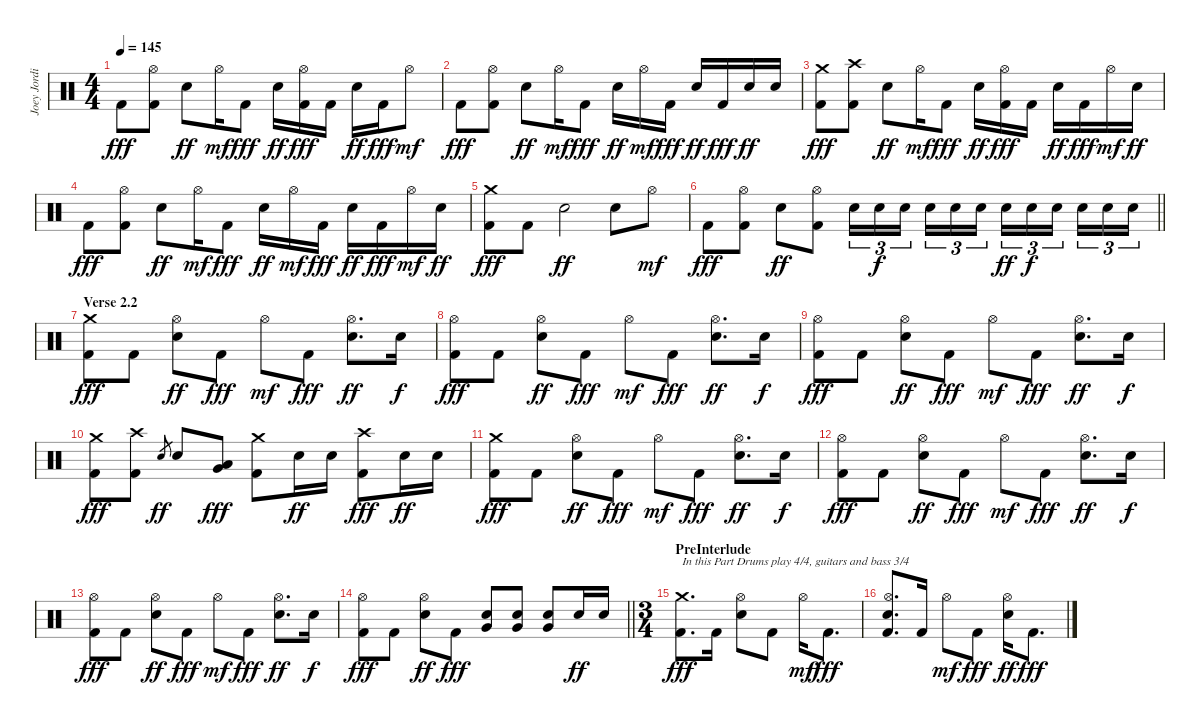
\track ("Joey Jordison" "Joey Jordi") {instrument percussion}
\staff {score}
\articulation defaults
\ts (4 4)
\tempo 145
\clef neutral
\ks c "Kick (hit) 2".8{dy fff}
("Hi-Hat (open)" "Kick (hit) 2").8 "Electric Snare (hit)".8{dy ff} "Hi-Hat (open)".16{dy mf} "Kick (hit) 2".8{dy fff} "Electric Snare (hit)".16{dy ff} ("Hi-Hat (open)" "Kick (hit) 2").16{dy fff} "Kick (hit) 2".16 "Electric Snare (hit)".16{dy ff} "Kick (hit) 2".16{dy fff} "Hi-Hat (open)".8{dy mf} |
"Kick (hit) 2".8{dy fff} ("Hi-Hat (open)" "Kick (hit) 2").8 "Electric Snare (hit)".8{dy ff} "Hi-Hat (open)".16{dy mf} "Kick (hit) 2".8{dy fff} "Electric Snare (hit)".16{dy ff} "Hi-Hat (open)".16{dy mf} "Kick (hit) 2".16{dy fff} "Electric Snare (hit)".16{dy ff} "Kick (hit) 2".16{dy fff} "Electric Snare (hit)".16{dy ff} "Electric Snare (hit)".16 |
("Crash medium (hit)" "Kick (hit) 2").8{dy fff} ("Crash high (hit)" "Kick (hit) 2").8 "Electric Snare (hit)".8{dy ff} "Hi-Hat (open)".16{dy mf} "Kick (hit) 2".8{dy fff} "Electric Snare (hit)".16{dy ff} ("Hi-Hat (open)" "Kick (hit) 2").16{dy fff} "Kick (hit) 2".16 "Electric Snare (hit)".16{dy ff} "Kick (hit) 2".16{dy fff} "Hi-Hat (open)".16{dy mf} "Electric Snare (hit)".16{dy ff} |
"Kick (hit) 2".8{dy fff} ("Hi-Hat (open)" "Kick (hit) 2").8 "Electric Snare (hit)".8{dy ff} "Hi-Hat (open)".16{dy mf} "Kick (hit) 2".8{dy fff} "Electric Snare (hit)".16{dy ff} "Hi-Hat (open)".16{dy mf} "Kick (hit) 2".16{dy fff} "Electric Snare (hit)".16{dy ff} "Kick (hit) 2".16{dy fff} "Hi-Hat (open)".16{dy mf} "Electric Snare (hit)".16{dy ff} |
("Crash medium (hit)" "Kick (hit) 2").8{dy fff} "Kick (hit) 2".8 "Electric Snare (hit)".2{dy ff} "Electric Snare (hit)".8 "Hi-Hat (open)".8{dy mf} |
\barLineRight lightlight "Kick (hit) 2".8{dy fff}
("Hi-Hat (open)" "Kick (hit) 2").8 "Electric Snare (hit)".8{dy ff} ("Hi-Hat (open)" "Kick (hit) 2").8 "Electric Snare (hit)".16{tu (3 2)} "Electric Snare (hit)".16{tu (3 2) dy f} "Electric Snare (hit)".16{tu (3 2) beam splitsecondary} "Electric Snare (hit)".16{tu (3 2)} "Electric Snare (hit)".16{tu (3 2)} "Electric Snare (hit)".16{tu (3 2)} "Electric Snare (hit)".16{tu (3 2) dy ff} "Electric Snare (hit)".16{tu (3 2) dy f} "Electric Snare (hit)".16{tu (3 2) beam splitsecondary} "Electric Snare (hit)".16{tu (3 2)} "Electric Snare (hit)".16{tu (3 2)} "Electric Snare (hit)".16{tu (3 2)} |
\section ("" "Verse 2.2")
("Crash medium (hit)" "Kick (hit) 2").8{dy fff} "Kick (hit) 2".8 ("Hi-Hat (open)" "Electric Snare (hit)").8{dy ff} "Kick (hit) 2".8{dy fff} "Hi-Hat (open)".8{dy mf} "Kick (hit) 2".8{dy fff} ("Hi-Hat (open)" "Electric Snare (hit)").8{d dy ff} "Electric Snare (hit)".16{dy f} |
("Hi-Hat (open)" "Kick (hit) 2").8{dy fff} "Kick (hit) 2".8 ("Hi-Hat (open)" "Electric Snare (hit)").8{dy ff} "Kick (hit) 2".8{dy fff} "Hi-Hat (open)".8{dy mf} "Kick (hit) 2".8{dy fff} ("Hi-Hat (open)" "Electric Snare (hit)").8{d dy ff} "Electric Snare (hit)".16{dy f} |
("Hi-Hat (open)" "Kick (hit) 2").8{dy fff} "Kick (hit) 2".8 ("Hi-Hat (open)" "Electric Snare (hit)").8{dy ff} "Kick (hit) 2".8{dy fff} "Hi-Hat (open)".8{dy mf} "Kick (hit) 2".8{dy fff} ("Hi-Hat (open)" "Electric Snare (hit)").8{d dy ff} "Electric Snare (hit)".16{dy f} |
("Crash medium (hit)" "Kick (hit) 2").8{dy fff} ("Crash high (hit)" "Kick (hit) 2").8 "Electric Snare (hit)".8{gr dy ff} "Electric Snare (hit)".8 ("Low Tom (hit)" "Very Low Tom (hit)").8{dy fff} ("Crash medium (hit)" "Kick (hit) 2").8 "Electric Snare (hit)".16{dy ff} "Electric Snare (hit)".16 ("Crash high (hit)" "Kick (hit) 2").8{dy fff} "Electric Snare (hit)".16{dy ff} "Electric Snare (hit)".16 |
("Crash medium (hit)" "Kick (hit) 2").8{dy fff} "Kick (hit) 2".8 ("Hi-Hat (open)" "Electric Snare (hit)").8{dy ff} "Kick (hit) 2".8{dy fff} "Hi-Hat (open)".8{dy mf} "Kick (hit) 2".8{dy fff} ("Hi-Hat (open)" "Electric Snare (hit)").8{d dy ff} "Electric Snare (hit)".16{dy f} |
("Hi-Hat (open)" "Kick (hit) 2").8{dy fff} "Kick (hit) 2".8 ("Hi-Hat (open)" "Electric Snare (hit)").8{dy ff} "Kick (hit) 2".8{dy fff} "Hi-Hat (open)".8{dy mf} "Kick (hit) 2".8{dy fff} ("Hi-Hat (open)" "Electric Snare (hit)").8{d dy ff} "Electric Snare (hit)".16{dy f} |
("Hi-Hat (open)" "Kick (hit) 2").8{dy fff} "Kick (hit) 2".8 ("Hi-Hat (open)" "Electric Snare (hit)").8{dy ff} "Kick (hit) 2".8{dy fff} "Hi-Hat (open)".8{dy mf} "Kick (hit) 2".8{dy fff} ("Hi-Hat (open)" "Electric Snare (hit)").8{d dy ff} "Electric Snare (hit)".16{dy f} |
\barLineRight lightlight
("Hi-Hat (open)" "Kick (hit) 2").8{dy fff} "Kick (hit) 2".8 ("Hi-Hat (open)" "Electric Snare (hit)").8{dy ff} "Kick (hit) 2".8{dy fff} ("Electric Snare (hit)" "Very Low Tom (hit)").8 ("Electric Snare (hit)" "Very Low Tom (hit)").8 ("Electric Snare (hit)" "Very Low Tom (hit)").8 "Electric Snare (hit)".16{dy ff} "Electric Snare (hit)".16 |
\ts (3 4)
\section ("" "PreInterlude")
("Crash medium (hit)" "Kick (hit) 2").8{d txt "In this Part Drums play 4/4, guitars and bass 3/4" dy fff} "Kick (hit) 2".16 ("Hi-Hat (open)" "Electric Snare (hit)").8 "Kick (hit) 2".8 "Hi-Hat (open)".16{dy mf} "Kick (hit) 2".8{d dy fff} |
("Hi-Hat (open)" "Electric Snare (hit)" "Kick (hit) 2").8{d} "Kick (hit) 2".16 "Hi-Hat (open)".8{dy mf} "Kick (hit) 2".8{dy fff} ("Hi-Hat (open)" "Electric Snare (hit)").16{dy ff} "Kick (hit) 2".8{d dy fff}
